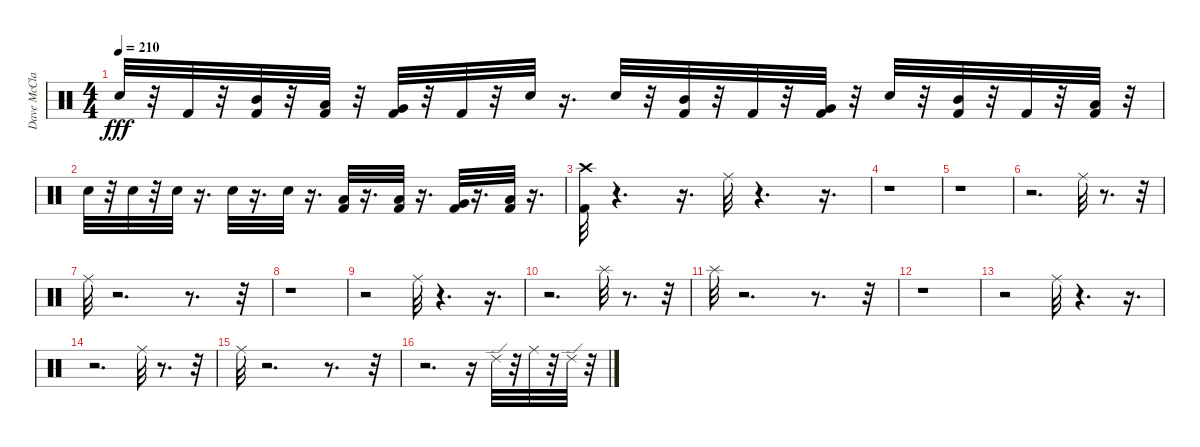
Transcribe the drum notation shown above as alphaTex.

\track ("Dave McClain" "Dave McCla") {instrument percussion}
\staff {score}
\articulation defaults
\ts (4 4)
\tempo 210
\clef neutral
\ks c "Snare (hit) 2".32{dy fff}
r.32 "Kick (hit) 2".32 r.32 ("Mid Tom (hit)" "Kick (hit) 2").32 r.32 ("Low Tom (hit)" "Kick (hit) 2").32 r.32 ("Very Low Tom (hit)" "Kick (hit) 2").32 r.32 "Kick (hit) 2".32 r.32 "Snare (hit) 2".32 r.16{d} "Snare (hit) 2".32 r.32 ("Mid Tom (hit)" "Kick (hit) 2").32 r.32 "Kick (hit) 2".32 r.32 ("Very Low Tom (hit)" "Kick (hit) 2").32 r.32 "Snare (hit) 2".32 r.32 ("Mid Tom (hit)" "Kick (hit) 2").32 r.32 "Kick (hit) 2".32 r.32 ("Low Tom (hit)" "Kick (hit) 2").32 r.32 |
"Snare (hit) 2".32 r.32 "Snare (hit) 2".32 r.32 "Snare (hit) 2".32 r.16{d} "Snare (hit) 2".32 r.16{d} "Snare (hit) 2".32 r.16{d} ("Kick (hit) 2" "Low Tom (hit)").32 r.16{d} ("Kick (hit) 2" "Low Tom (hit)").32 r.16{d} ("Kick (hit) 2" "Very Low Tom (hit)").32 r.16{d} ("Kick (hit) 2" "Low Floor Tom (hit)").32 r.16{d} |
("Crash high (hit)" "Kick (hit) 2").32 r.4{d} r.16{d} "Ride (middle)".32 r.4{d} r.16{d} |
r.1 |
r.1 |
r.2{d} "Ride (middle)".32 r.8{d} r.32 |
"Ride (middle)".32 r.2{d} r.8{d} r.32 |
r.1 |
r.2 "Ride (middle)".32 r.4{d} r.16{d} |
r.2{d} "Splash (hit)".32 r.8{d} r.32 |
"Splash (hit)".32 r.2{d} r.8{d} r.32 |
r.1 |
r.2 "Ride (middle)".32 r.4{d} r.16{d} |
r.2{d} "Ride (middle)".32 r.8{d} r.32 |
"Ride (middle)".32 r.2{d} r.8{d} r.32 |
r.2{d} r.16 "Ride (edge) 2".32 r.32 "Ride (middle)".32 r.32 "Ride (edge) 2".32 r.32
